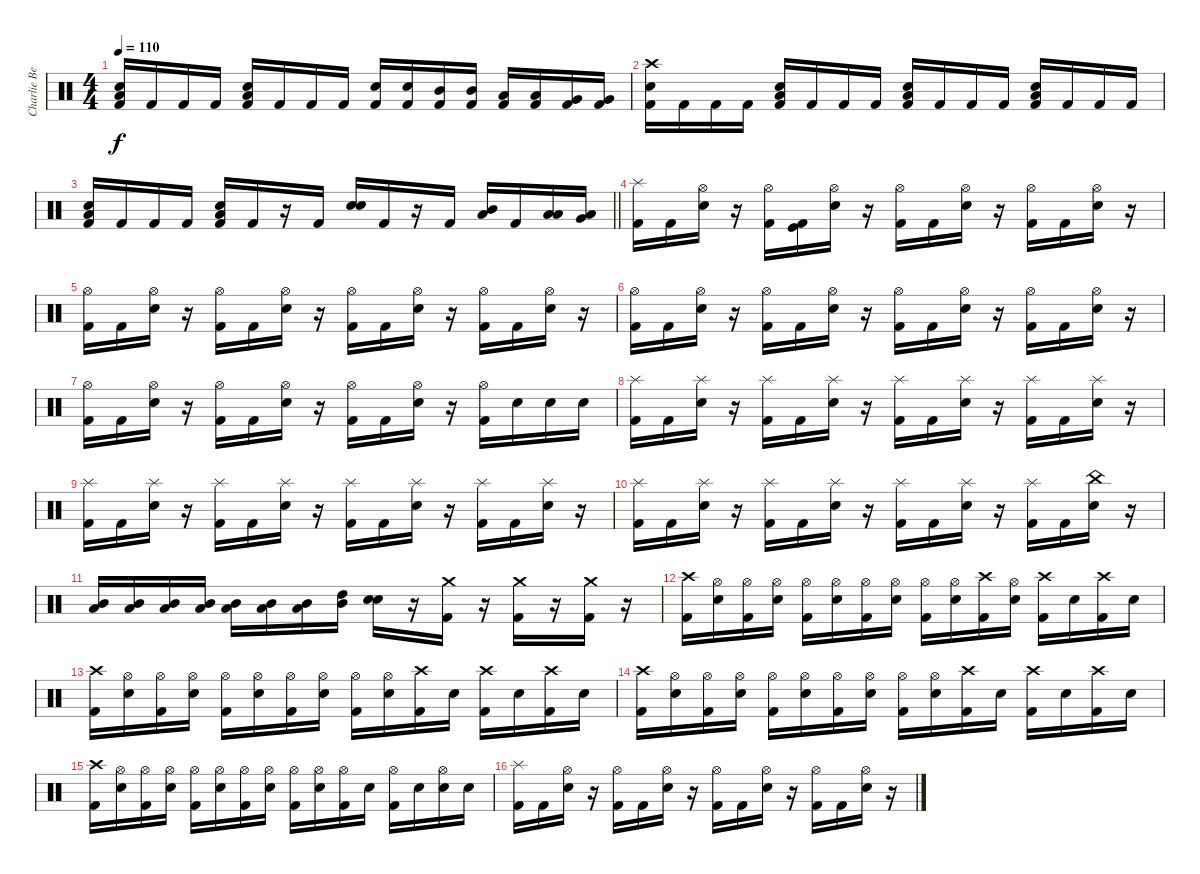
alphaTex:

\track ("Charlie Benante" "Charlie Be") {instrument percussion}
\staff {score}
\articulation defaults
\ts (4 4)
\tempo 110
\clef neutral
\ks c
("Low Floor Tom (hit)" "Electric Snare (hit)" "Kick (hit) 2").16{dy f} "Kick (hit) 2".16 "Kick (hit) 2".16 "Kick (hit) 2".16 ("Low Floor Tom (hit)" "Electric Snare (hit)" "Kick (hit) 2").16 "Kick (hit) 2".16 "Kick (hit) 2".16 "Kick (hit) 2".16 ("Electric Snare (hit)" "Kick (hit) 2").16 ("Electric Snare (hit)" "Kick (hit) 2").16 ("Mid Tom (hit)" "Kick (hit) 2").16 ("Mid Tom (hit)" "Kick (hit) 2").16 ("Low Tom (hit)" "Kick (hit) 2").16 ("Low Tom (hit)" "Kick (hit) 2").16 ("Very Low Tom (hit)" "Kick (hit) 2").16 ("Very Low Tom (hit)" "Kick (hit) 2").16 |
("Crash high (hit)" "Electric Snare (hit)" "Kick (hit) 2").16 "Kick (hit) 2".16 "Kick (hit) 2".16 "Kick (hit) 2".16 ("Low Floor Tom (hit)" "Electric Snare (hit)" "Kick (hit) 2").16 "Kick (hit) 2".16 "Kick (hit) 2".16 "Kick (hit) 2".16 ("Low Floor Tom (hit)" "Electric Snare (hit)" "Kick (hit) 2").16 "Kick (hit) 2".16 "Kick (hit) 2".16 "Kick (hit) 2".16 ("Low Floor Tom (hit)" "Electric Snare (hit)" "Kick (hit) 2").16 "Kick (hit) 2".16 "Kick (hit) 2".16 "Kick (hit) 2".16 |
\barLineRight lightlight
("Low Floor Tom (hit)" "Electric Snare (hit)" "Kick (hit) 2").16 "Kick (hit) 2".16 "Kick (hit) 2".16 "Kick (hit) 2".16 ("Low Floor Tom (hit)" "Electric Snare (hit)" "Kick (hit) 2").16 "Kick (hit) 2".16 r.16 "Kick (hit) 2".16 ("Electric Snare (hit)" "Snare (hit) 2").16 "Kick (hit) 2".16 r.16 "Kick (hit) 2".16 ("Mid Tom (hit)" "Low Floor Tom (hit)").16 "Kick (hit) 2".16 ("Low Tom (hit)" "Low Floor Tom (hit)").16 ("Low Floor Tom (hit)" "Very Low Tom (hit)").16 |
("Splash (hit)" "Kick (hit) 2").16 "Kick (hit) 2".16 ("Hi-Hat (open)" "Electric Snare (hit)").16 r.16 ("Hi-Hat (open)" "Kick (hit) 2").16 ("Kick (hit)" "Kick (hit) 2").16 ("Hi-Hat (open)" "Electric Snare (hit)").16 r.16 ("Hi-Hat (open)" "Kick (hit) 2").16 "Kick (hit) 2".16 ("Hi-Hat (open)" "Electric Snare (hit)").16 r.16 ("Hi-Hat (open)" "Kick (hit) 2").16 "Kick (hit) 2".16 ("Hi-Hat (open)" "Electric Snare (hit)").16 r.16 |
("Hi-Hat (open)" "Kick (hit) 2").16 "Kick (hit) 2".16 ("Hi-Hat (open)" "Electric Snare (hit)").16 r.16 ("Hi-Hat (open)" "Kick (hit) 2").16 "Kick (hit) 2".16 ("Hi-Hat (open)" "Electric Snare (hit)").16 r.16 ("Hi-Hat (open)" "Kick (hit) 2").16 "Kick (hit) 2".16 ("Hi-Hat (open)" "Electric Snare (hit)").16 r.16 ("Hi-Hat (open)" "Kick (hit) 2").16 "Kick (hit) 2".16 ("Hi-Hat (open)" "Electric Snare (hit)").16 r.16 |
("Hi-Hat (open)" "Kick (hit) 2").16 "Kick (hit) 2".16 ("Hi-Hat (open)" "Electric Snare (hit)").16 r.16 ("Hi-Hat (open)" "Kick (hit) 2").16 "Kick (hit) 2".16 ("Hi-Hat (open)" "Electric Snare (hit)").16 r.16 ("Hi-Hat (open)" "Kick (hit) 2").16 "Kick (hit) 2".16 ("Hi-Hat (open)" "Electric Snare (hit)").16 r.16 ("Hi-Hat (open)" "Kick (hit) 2").16 "Kick (hit) 2".16 ("Hi-Hat (open)" "Electric Snare (hit)").16 r.16 |
("Hi-Hat (open)" "Kick (hit) 2").16 "Kick (hit) 2".16 ("Hi-Hat (open)" "Electric Snare (hit)").16 r.16 ("Hi-Hat (open)" "Kick (hit) 2").16 "Kick (hit) 2".16 ("Hi-Hat (open)" "Electric Snare (hit)").16 r.16 ("Hi-Hat (open)" "Kick (hit) 2").16 "Kick (hit) 2".16 ("Hi-Hat (open)" "Electric Snare (hit)").16 r.16 ("Hi-Hat (open)" "Kick (hit) 2").16 "Electric Snare (hit)".16 "Snare (hit) 2".16 "Electric Snare (hit)".16 |
("Splash (hit)" "Kick (hit) 2").16 "Kick (hit) 2".16 ("Splash (hit)" "Electric Snare (hit)").16 r.16 ("Splash (hit)" "Kick (hit) 2").16 "Kick (hit) 2".16 ("Splash (hit)" "Electric Snare (hit)").16 r.16 ("Splash (hit)" "Kick (hit) 2").16 "Kick (hit) 2".16 ("Splash (hit)" "Electric Snare (hit)").16 r.16 ("Splash (hit)" "Kick (hit) 2").16 "Kick (hit) 2".16 ("Splash (hit)" "Electric Snare (hit)").16 r.16 |
("Splash (hit)" "Kick (hit) 2").16 "Kick (hit) 2".16 ("Splash (hit)" "Electric Snare (hit)").16 r.16 ("Splash (hit)" "Kick (hit) 2").16 "Kick (hit) 2".16 ("Splash (hit)" "Electric Snare (hit)").16 r.16 ("Splash (hit)" "Kick (hit) 2").16 "Kick (hit) 2".16 ("Splash (hit)" "Electric Snare (hit)").16 r.16 ("Splash (hit)" "Kick (hit) 2").16 "Kick (hit) 2".16 ("Splash (hit)" "Electric Snare (hit)").16 r.16 |
("Splash (hit)" "Kick (hit) 2").16 "Kick (hit) 2".16 ("Splash (hit)" "Electric Snare (hit)").16 r.16 ("Splash (hit)" "Kick (hit) 2").16 "Kick (hit) 2".16 ("Splash (hit)" "Electric Snare (hit)").16 r.16 ("Splash (hit)" "Kick (hit) 2").16 "Kick (hit) 2".16 ("Splash (hit)" "Electric Snare (hit)").16 r.16 ("Splash (hit)" "Kick (hit) 2").16 "Kick (hit) 2".16 ("China (hit)" "Electric Snare (hit)").16 r.16 |
("Low Tom (hit)" "Mid Tom (hit)").16 ("Low Tom (hit)" "Mid Tom (hit)").16 ("Low Tom (hit)" "Mid Tom (hit)").16 ("Low Tom (hit)" "Mid Tom (hit)").16 ("Low Tom (hit)" "Mid Tom (hit)").16 ("Low Tom (hit)" "Mid Tom (hit)").16 ("Low Tom (hit)" "Mid Tom (hit)").16 ("Mid Tom (hit)" "High Tom (hit)").16 ("Electric Snare (hit)" "Snare (hit) 2").16 r.16 ("Crash medium (hit)" "Kick (hit) 2").16 r.16 ("Crash medium (hit)" "Kick (hit) 2").16 r.16 ("Crash medium (hit)" "Kick (hit) 2").16 r.16 |
("Crash high (hit)" "Kick (hit) 2").16 ("Hi-Hat (open)" "Electric Snare (hit)").16 ("Hi-Hat (open)" "Kick (hit) 2").16 ("Hi-Hat (open)" "Electric Snare (hit)").16 ("Hi-Hat (open)" "Kick (hit) 2").16 ("Hi-Hat (open)" "Electric Snare (hit)").16 ("Hi-Hat (open)" "Kick (hit) 2").16 ("Hi-Hat (open)" "Electric Snare (hit)").16 ("Hi-Hat (open)" "Kick (hit) 2").16 ("Hi-Hat (open)" "Electric Snare (hit)").16 ("Crash high (hit)" "Kick (hit) 2").16 ("Hi-Hat (open)" "Electric Snare (hit)").16 ("Crash high (hit)" "Kick (hit) 2").16 "Electric Snare (hit)".16 ("Crash high (hit)" "Kick (hit) 2").16 "Electric Snare (hit)".16 |
("Crash high (hit)" "Kick (hit) 2").16 ("Hi-Hat (open)" "Electric Snare (hit)").16 ("Hi-Hat (open)" "Kick (hit) 2").16 ("Hi-Hat (open)" "Electric Snare (hit)").16 ("Hi-Hat (open)" "Kick (hit) 2").16 ("Hi-Hat (open)" "Electric Snare (hit)").16 ("Hi-Hat (open)" "Kick (hit) 2").16 ("Hi-Hat (open)" "Electric Snare (hit)").16 ("Hi-Hat (open)" "Kick (hit) 2").16 ("Hi-Hat (open)" "Electric Snare (hit)").16 ("Crash high (hit)" "Kick (hit) 2").16 "Electric Snare (hit)".16 ("Crash high (hit)" "Kick (hit) 2").16 "Electric Snare (hit)".16 ("Crash high (hit)" "Kick (hit) 2").16 "Electric Snare (hit)".16 |
("Crash high (hit)" "Kick (hit) 2").16 ("Hi-Hat (open)" "Electric Snare (hit)").16 ("Hi-Hat (open)" "Kick (hit) 2").16 ("Hi-Hat (open)" "Electric Snare (hit)").16 ("Hi-Hat (open)" "Kick (hit) 2").16 ("Hi-Hat (open)" "Electric Snare (hit)").16 ("Hi-Hat (open)" "Kick (hit) 2").16 ("Hi-Hat (open)" "Electric Snare (hit)").16 ("Hi-Hat (open)" "Kick (hit) 2").16 ("Hi-Hat (open)" "Electric Snare (hit)").16 ("Crash high (hit)" "Kick (hit) 2").16 "Electric Snare (hit)".16 ("Crash high (hit)" "Kick (hit) 2").16 "Electric Snare (hit)".16 ("Crash high (hit)" "Kick (hit) 2").16 "Electric Snare (hit)".16 |
("Crash high (hit)" "Kick (hit) 2").16 ("Hi-Hat (open)" "Electric Snare (hit)").16 ("Hi-Hat (open)" "Kick (hit) 2").16 ("Hi-Hat (open)" "Electric Snare (hit)").16 ("Hi-Hat (open)" "Kick (hit) 2").16 ("Hi-Hat (open)" "Electric Snare (hit)").16 ("Hi-Hat (open)" "Kick (hit) 2").16 ("Hi-Hat (open)" "Electric Snare (hit)").16 ("Hi-Hat (open)" "Kick (hit) 2").16 ("Hi-Hat (open)" "Electric Snare (hit)").16 ("Hi-Hat (open)" "Kick (hit) 2").16 "Electric Snare (hit)".16 ("Hi-Hat (open)" "Kick (hit) 2").16 "Electric Snare (hit)".16 ("Hi-Hat (open)" "Electric Snare (hit)").16 "Electric Snare (hit)".16 |
("Splash (hit)" "Kick (hit) 2").16 "Kick (hit) 2".16 ("Hi-Hat (open)" "Electric Snare (hit)").16 r.16 ("Hi-Hat (open)" "Kick (hit) 2").16 "Kick (hit) 2".16 ("Hi-Hat (open)" "Electric Snare (hit)").16 r.16 ("Hi-Hat (open)" "Kick (hit) 2").16 "Kick (hit) 2".16 ("Hi-Hat (open)" "Electric Snare (hit)").16 r.16 ("Hi-Hat (open)" "Kick (hit) 2").16 "Kick (hit) 2".16 ("Hi-Hat (open)" "Electric Snare (hit)").16 r.16
